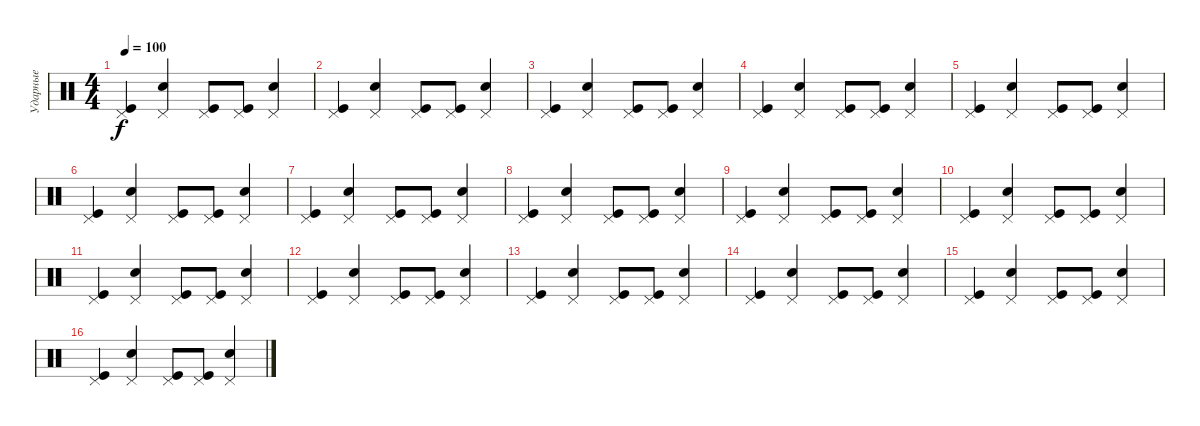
\track ("Ударные" "Ударные") {instrument percussion}
\staff {score}
\articulation defaults
\ts (4 4)
\tempo 100
\clef neutral
\ks c
("Pedal Hi-Hat (hit)" "Kick (hit)").4{dy f} ("Pedal Hi-Hat (hit)" "Snare (hit) 2").4 ("Pedal Hi-Hat (hit)" "Kick (hit)").8 ("Pedal Hi-Hat (hit)" "Kick (hit)").8 ("Pedal Hi-Hat (hit)" "Snare (hit) 2").4 |
("Pedal Hi-Hat (hit)" "Kick (hit)").4 ("Pedal Hi-Hat (hit)" "Snare (hit) 2").4 ("Pedal Hi-Hat (hit)" "Kick (hit)").8 ("Pedal Hi-Hat (hit)" "Kick (hit)").8 ("Pedal Hi-Hat (hit)" "Snare (hit) 2").4 |
("Pedal Hi-Hat (hit)" "Kick (hit)").4 ("Pedal Hi-Hat (hit)" "Snare (hit) 2").4 ("Pedal Hi-Hat (hit)" "Kick (hit)").8 ("Pedal Hi-Hat (hit)" "Kick (hit)").8 ("Pedal Hi-Hat (hit)" "Snare (hit) 2").4 |
("Pedal Hi-Hat (hit)" "Kick (hit)").4 ("Pedal Hi-Hat (hit)" "Snare (hit) 2").4 ("Pedal Hi-Hat (hit)" "Kick (hit)").8 ("Pedal Hi-Hat (hit)" "Kick (hit)").8 ("Pedal Hi-Hat (hit)" "Snare (hit) 2").4 |
("Pedal Hi-Hat (hit)" "Kick (hit)").4 ("Pedal Hi-Hat (hit)" "Snare (hit) 2").4 ("Pedal Hi-Hat (hit)" "Kick (hit)").8 ("Pedal Hi-Hat (hit)" "Kick (hit)").8 ("Pedal Hi-Hat (hit)" "Snare (hit) 2").4 |
("Pedal Hi-Hat (hit)" "Kick (hit)").4 ("Pedal Hi-Hat (hit)" "Snare (hit) 2").4 ("Pedal Hi-Hat (hit)" "Kick (hit)").8 ("Pedal Hi-Hat (hit)" "Kick (hit)").8 ("Pedal Hi-Hat (hit)" "Snare (hit) 2").4 |
("Pedal Hi-Hat (hit)" "Kick (hit)").4 ("Pedal Hi-Hat (hit)" "Snare (hit) 2").4 ("Pedal Hi-Hat (hit)" "Kick (hit)").8 ("Pedal Hi-Hat (hit)" "Kick (hit)").8 ("Pedal Hi-Hat (hit)" "Snare (hit) 2").4 |
("Pedal Hi-Hat (hit)" "Kick (hit)").4 ("Pedal Hi-Hat (hit)" "Snare (hit) 2").4 ("Pedal Hi-Hat (hit)" "Kick (hit)").8 ("Pedal Hi-Hat (hit)" "Kick (hit)").8 ("Pedal Hi-Hat (hit)" "Snare (hit) 2").4 |
("Pedal Hi-Hat (hit)" "Kick (hit)").4 ("Pedal Hi-Hat (hit)" "Snare (hit) 2").4 ("Pedal Hi-Hat (hit)" "Kick (hit)").8 ("Pedal Hi-Hat (hit)" "Kick (hit)").8 ("Pedal Hi-Hat (hit)" "Snare (hit) 2").4 |
("Pedal Hi-Hat (hit)" "Kick (hit)").4 ("Pedal Hi-Hat (hit)" "Snare (hit) 2").4 ("Pedal Hi-Hat (hit)" "Kick (hit)").8 ("Pedal Hi-Hat (hit)" "Kick (hit)").8 ("Pedal Hi-Hat (hit)" "Snare (hit) 2").4 |
("Pedal Hi-Hat (hit)" "Kick (hit)").4 ("Pedal Hi-Hat (hit)" "Snare (hit) 2").4 ("Pedal Hi-Hat (hit)" "Kick (hit)").8 ("Pedal Hi-Hat (hit)" "Kick (hit)").8 ("Pedal Hi-Hat (hit)" "Snare (hit) 2").4 |
("Pedal Hi-Hat (hit)" "Kick (hit)").4 ("Pedal Hi-Hat (hit)" "Snare (hit) 2").4 ("Pedal Hi-Hat (hit)" "Kick (hit)").8 ("Pedal Hi-Hat (hit)" "Kick (hit)").8 ("Pedal Hi-Hat (hit)" "Snare (hit) 2").4 |
("Pedal Hi-Hat (hit)" "Kick (hit)").4 ("Pedal Hi-Hat (hit)" "Snare (hit) 2").4 ("Pedal Hi-Hat (hit)" "Kick (hit)").8 ("Pedal Hi-Hat (hit)" "Kick (hit)").8 ("Pedal Hi-Hat (hit)" "Snare (hit) 2").4 |
("Pedal Hi-Hat (hit)" "Kick (hit)").4 ("Pedal Hi-Hat (hit)" "Snare (hit) 2").4 ("Pedal Hi-Hat (hit)" "Kick (hit)").8 ("Pedal Hi-Hat (hit)" "Kick (hit)").8 ("Pedal Hi-Hat (hit)" "Snare (hit) 2").4 |
("Pedal Hi-Hat (hit)" "Kick (hit)").4 ("Pedal Hi-Hat (hit)" "Snare (hit) 2").4 ("Pedal Hi-Hat (hit)" "Kick (hit)").8 ("Pedal Hi-Hat (hit)" "Kick (hit)").8 ("Pedal Hi-Hat (hit)" "Snare (hit) 2").4 |
("Pedal Hi-Hat (hit)" "Kick (hit)").4 ("Pedal Hi-Hat (hit)" "Snare (hit) 2").4 ("Pedal Hi-Hat (hit)" "Kick (hit)").8 ("Pedal Hi-Hat (hit)" "Kick (hit)").8 ("Pedal Hi-Hat (hit)" "Snare (hit) 2").4
